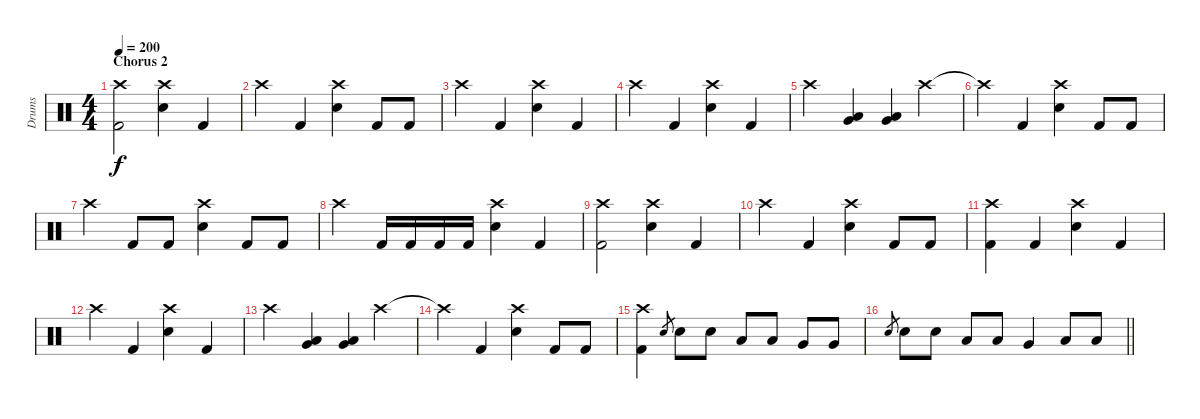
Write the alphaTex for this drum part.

\track ("Drums" "Drums") {instrument percussion}
\staff {score}
\articulation defaults
\ts (4 4)
\section ("" "Chorus 2")
\tempo 200
\clef neutral
\ks c
("Crash high (hit)" "Kick (hit) 2").2{dy f} ("Crash high (hit)" "Electric Snare (hit)").4 "Kick (hit) 2".4 |
"Crash high (hit)".4 "Kick (hit) 2".4 ("Crash high (hit)" "Electric Snare (hit)").4 "Kick (hit) 2".8 "Kick (hit) 2".8 |
"Crash high (hit)".4 "Kick (hit) 2".4 ("Crash high (hit)" "Electric Snare (hit)").4 "Kick (hit) 2".4 |
"Crash high (hit)".4 "Kick (hit) 2".4 ("Crash high (hit)" "Electric Snare (hit)").4 "Kick (hit) 2".4 |
"Crash high (hit)".4 ("Very Low Tom (hit)" "Low Floor Tom (hit)").4 ("Very Low Tom (hit)" "Low Floor Tom (hit)").4 "Crash high (hit)".4 |
"Crash high (hit)"{t}.4 "Kick (hit) 2".4 ("Crash high (hit)" "Electric Snare (hit)").4 "Kick (hit) 2".8 "Kick (hit) 2".8 |
"Crash high (hit)".4 "Kick (hit) 2".8 "Kick (hit) 2".8 ("Crash high (hit)" "Electric Snare (hit)").4 "Kick (hit) 2".8 "Kick (hit) 2".8 |
"Crash high (hit)".4 "Kick (hit) 2".16 "Kick (hit) 2".16 "Kick (hit) 2".16 "Kick (hit) 2".16 ("Crash high (hit)" "Electric Snare (hit)").4 "Kick (hit) 2".4 |
("Crash high (hit)" "Kick (hit) 2").2 ("Crash high (hit)" "Electric Snare (hit)").4 "Kick (hit) 2".4 |
"Crash high (hit)".4 "Kick (hit) 2".4 ("Crash high (hit)" "Electric Snare (hit)").4 "Kick (hit) 2".8 "Kick (hit) 2".8 |
("Crash high (hit)" "Kick (hit) 2").4 "Kick (hit) 2".4 ("Crash high (hit)" "Electric Snare (hit)").4 "Kick (hit) 2".4 |
"Crash high (hit)".4 "Kick (hit) 2".4 ("Crash high (hit)" "Electric Snare (hit)").4 "Kick (hit) 2".4 |
"Crash high (hit)".4 ("Very Low Tom (hit)" "Low Floor Tom (hit)").4 ("Very Low Tom (hit)" "Low Floor Tom (hit)").4 "Crash high (hit)".4 |
"Crash high (hit)"{t}.4 "Kick (hit) 2".4 ("Crash high (hit)" "Electric Snare (hit)").4 "Kick (hit) 2".8 "Kick (hit) 2".8 |
("Crash high (hit)" "Kick (hit) 2").4 "Electric Snare (hit)".8{gr} "Electric Snare (hit)".8 "Electric Snare (hit)".8 "Low Tom (hit)".8 "Low Tom (hit)".8 "Very Low Tom (hit)".8 "Very Low Tom (hit)".8 |
\barLineRight lightlight "Electric Snare (hit)".8{gr} "Electric Snare (hit)".8 "Electric Snare (hit)".8 "Low Tom (hit)".8 "Low Tom (hit)".8 "Very Low Tom (hit)".4 "Low Floor Tom (hit)".8 "Low Floor Tom (hit)".8
